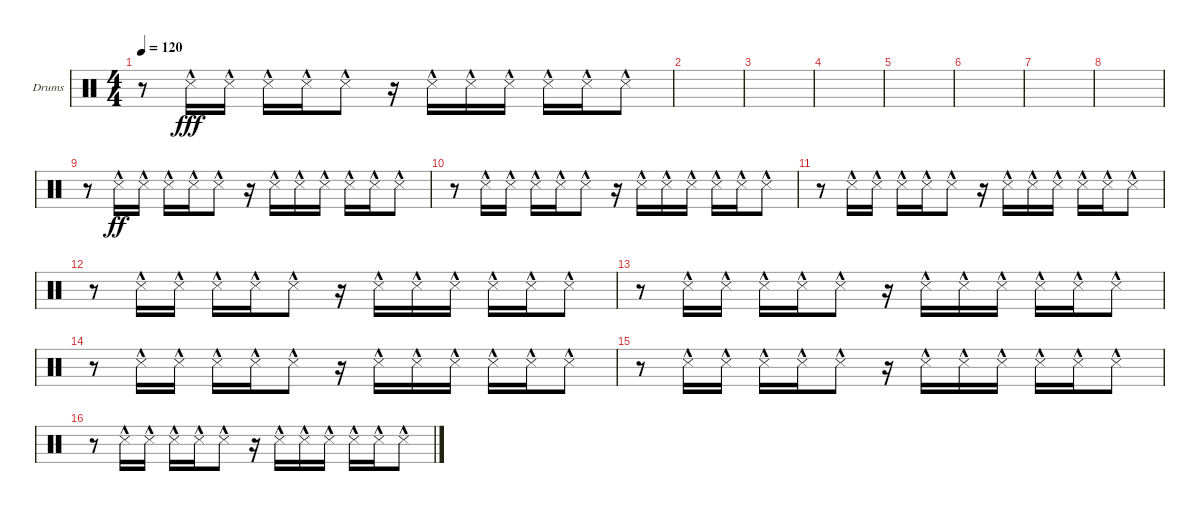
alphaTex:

\defaultSystemsLayout 4
\bracketExtendMode nobrackets
\firstSystemTrackNameOrientation horizontal
\otherSystemsTrackNameOrientation horizontal
\track ("Drumkit" "Drums") {instrument percussion}
\staff {score}
\articulation defaults
\ts (4 4)
\tempo 120
\clef neutral
\ks c
r.8{dy ff} "Snare (side stick) 3"{hac}.16{dy fff} "Snare (side stick) 3"{hac}.16 "Snare (side stick) 3"{hac}.16 "Snare (side stick) 3"{hac}.16 "Snare (side stick) 3"{hac}.8 r.16 "Snare (side stick) 3"{hac}.16 "Snare (side stick) 3"{hac}.16 "Snare (side stick) 3"{hac}.16 "Snare (side stick) 3"{hac}.16 "Snare (side stick) 3"{hac}.16 "Snare (side stick) 3"{hac}.8 |
|
|
|
|
|
|
|
r.8 "Snare (side stick) 3"{hac}.16{dy ff} "Snare (side stick) 3"{hac}.16 "Snare (side stick) 3"{hac}.16 "Snare (side stick) 3"{hac}.16 "Snare (side stick) 3"{hac}.8 r.16 "Snare (side stick) 3"{hac}.16 "Snare (side stick) 3"{hac}.16 "Snare (side stick) 3"{hac}.16 "Snare (side stick) 3"{hac}.16 "Snare (side stick) 3"{hac}.16 "Snare (side stick) 3"{hac}.8 |
r.8 "Snare (side stick) 3"{hac}.16 "Snare (side stick) 3"{hac}.16 "Snare (side stick) 3"{hac}.16 "Snare (side stick) 3"{hac}.16 "Snare (side stick) 3"{hac}.8 r.16 "Snare (side stick) 3"{hac}.16 "Snare (side stick) 3"{hac}.16 "Snare (side stick) 3"{hac}.16 "Snare (side stick) 3"{hac}.16 "Snare (side stick) 3"{hac}.16 "Snare (side stick) 3"{hac}.8 |
r.8 "Snare (side stick) 3"{hac}.16 "Snare (side stick) 3"{hac}.16 "Snare (side stick) 3"{hac}.16 "Snare (side stick) 3"{hac}.16 "Snare (side stick) 3"{hac}.8 r.16 "Snare (side stick) 3"{hac}.16 "Snare (side stick) 3"{hac}.16 "Snare (side stick) 3"{hac}.16 "Snare (side stick) 3"{hac}.16 "Snare (side stick) 3"{hac}.16 "Snare (side stick) 3"{hac}.8 |
r.8 "Snare (side stick) 3"{hac}.16 "Snare (side stick) 3"{hac}.16 "Snare (side stick) 3"{hac}.16 "Snare (side stick) 3"{hac}.16 "Snare (side stick) 3"{hac}.8 r.16 "Snare (side stick) 3"{hac}.16 "Snare (side stick) 3"{hac}.16 "Snare (side stick) 3"{hac}.16 "Snare (side stick) 3"{hac}.16 "Snare (side stick) 3"{hac}.16 "Snare (side stick) 3"{hac}.8 |
r.8 "Snare (side stick) 3"{hac}.16 "Snare (side stick) 3"{hac}.16 "Snare (side stick) 3"{hac}.16 "Snare (side stick) 3"{hac}.16 "Snare (side stick) 3"{hac}.8 r.16 "Snare (side stick) 3"{hac}.16 "Snare (side stick) 3"{hac}.16 "Snare (side stick) 3"{hac}.16 "Snare (side stick) 3"{hac}.16 "Snare (side stick) 3"{hac}.16 "Snare (side stick) 3"{hac}.8 |
r.8 "Snare (side stick) 3"{hac}.16 "Snare (side stick) 3"{hac}.16 "Snare (side stick) 3"{hac}.16 "Snare (side stick) 3"{hac}.16 "Snare (side stick) 3"{hac}.8 r.16 "Snare (side stick) 3"{hac}.16 "Snare (side stick) 3"{hac}.16 "Snare (side stick) 3"{hac}.16 "Snare (side stick) 3"{hac}.16 "Snare (side stick) 3"{hac}.16 "Snare (side stick) 3"{hac}.8 |
r.8 "Snare (side stick) 3"{hac}.16 "Snare (side stick) 3"{hac}.16 "Snare (side stick) 3"{hac}.16 "Snare (side stick) 3"{hac}.16 "Snare (side stick) 3"{hac}.8 r.16 "Snare (side stick) 3"{hac}.16 "Snare (side stick) 3"{hac}.16 "Snare (side stick) 3"{hac}.16 "Snare (side stick) 3"{hac}.16 "Snare (side stick) 3"{hac}.16 "Snare (side stick) 3"{hac}.8 |
r.8 "Snare (side stick) 3"{hac}.16 "Snare (side stick) 3"{hac}.16 "Snare (side stick) 3"{hac}.16 "Snare (side stick) 3"{hac}.16 "Snare (side stick) 3"{hac}.8 r.16 "Snare (side stick) 3"{hac}.16 "Snare (side stick) 3"{hac}.16 "Snare (side stick) 3"{hac}.16 "Snare (side stick) 3"{hac}.16 "Snare (side stick) 3"{hac}.16 "Snare (side stick) 3"{hac}.8
